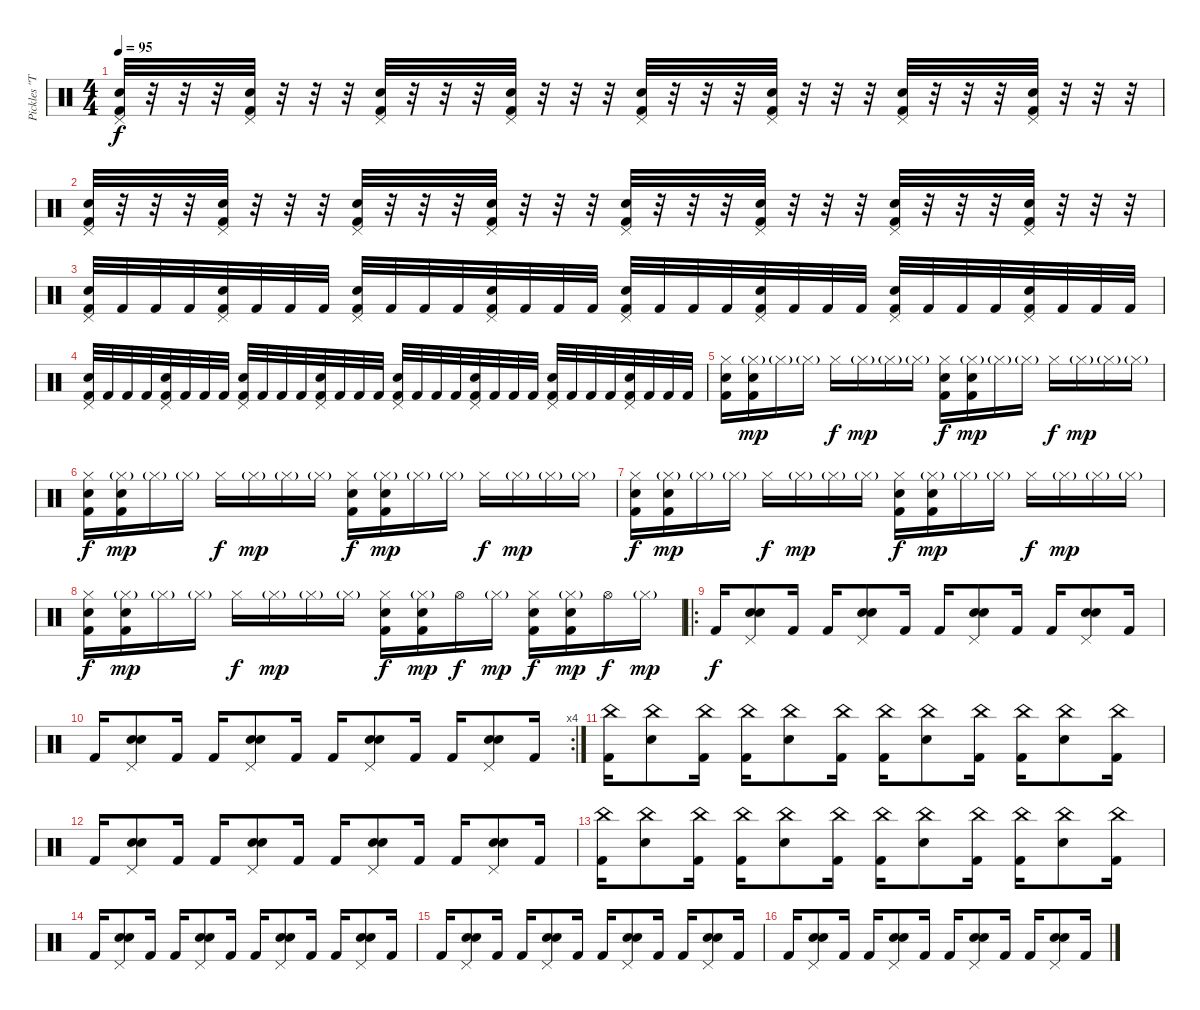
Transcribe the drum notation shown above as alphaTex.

\track ("Pickles \"The Drummer\"" "Pickles \"T") {instrument percussion}
\staff {score}
\articulation defaults
\ts (4 4)
\tempo 95
\clef neutral
\ks c
("Electric Snare (hit)" "Pedal Hi-Hat (hit)" "Kick (hit) 2").32{dy f} r.32 r.32 r.32 ("Electric Snare (hit)" "Pedal Hi-Hat (hit)" "Kick (hit) 2").32 r.32 r.32 r.32 ("Electric Snare (hit)" "Pedal Hi-Hat (hit)" "Kick (hit) 2").32 r.32 r.32 r.32 ("Electric Snare (hit)" "Pedal Hi-Hat (hit)" "Kick (hit) 2").32 r.32 r.32 r.32 ("Electric Snare (hit)" "Pedal Hi-Hat (hit)" "Kick (hit) 2").32 r.32 r.32 r.32 ("Electric Snare (hit)" "Pedal Hi-Hat (hit)" "Kick (hit) 2").32 r.32 r.32 r.32 ("Electric Snare (hit)" "Pedal Hi-Hat (hit)" "Kick (hit) 2").32 r.32 r.32 r.32 ("Electric Snare (hit)" "Pedal Hi-Hat (hit)" "Kick (hit) 2").32 r.32 r.32 r.32 |
("Electric Snare (hit)" "Pedal Hi-Hat (hit)" "Kick (hit) 2").32 r.32 r.32 r.32 ("Electric Snare (hit)" "Pedal Hi-Hat (hit)" "Kick (hit) 2").32 r.32 r.32 r.32 ("Electric Snare (hit)" "Pedal Hi-Hat (hit)" "Kick (hit) 2").32 r.32 r.32 r.32 ("Electric Snare (hit)" "Pedal Hi-Hat (hit)" "Kick (hit) 2").32 r.32 r.32 r.32 ("Electric Snare (hit)" "Pedal Hi-Hat (hit)" "Kick (hit) 2").32 r.32 r.32 r.32 ("Electric Snare (hit)" "Pedal Hi-Hat (hit)" "Kick (hit) 2").32 r.32 r.32 r.32 ("Electric Snare (hit)" "Pedal Hi-Hat (hit)" "Kick (hit) 2").32 r.32 r.32 r.32 ("Electric Snare (hit)" "Pedal Hi-Hat (hit)" "Kick (hit) 2").32 r.32 r.32 r.32 |
("Pedal Hi-Hat (hit)" "Electric Snare (hit)" "Kick (hit) 2").32 "Kick (hit) 2".32 "Kick (hit) 2".32 "Kick (hit) 2".32 ("Pedal Hi-Hat (hit)" "Electric Snare (hit)" "Kick (hit) 2").32 "Kick (hit) 2".32 "Kick (hit) 2".32 "Kick (hit) 2".32 ("Pedal Hi-Hat (hit)" "Electric Snare (hit)" "Kick (hit) 2").32 "Kick (hit) 2".32 "Kick (hit) 2".32 "Kick (hit) 2".32 ("Pedal Hi-Hat (hit)" "Electric Snare (hit)" "Kick (hit) 2").32 "Kick (hit) 2".32 "Kick (hit) 2".32 "Kick (hit) 2".32 ("Pedal Hi-Hat (hit)" "Electric Snare (hit)" "Kick (hit) 2").32 "Kick (hit) 2".32 "Kick (hit) 2".32 "Kick (hit) 2".32 ("Pedal Hi-Hat (hit)" "Electric Snare (hit)" "Kick (hit) 2").32 "Kick (hit) 2".32 "Kick (hit) 2".32 "Kick (hit) 2".32 ("Pedal Hi-Hat (hit)" "Electric Snare (hit)" "Kick (hit) 2").32 "Kick (hit) 2".32 "Kick (hit) 2".32 "Kick (hit) 2".32 ("Pedal Hi-Hat (hit)" "Electric Snare (hit)" "Kick (hit) 2").32 "Kick (hit) 2".32 "Kick (hit) 2".32 "Kick (hit) 2".32 |
("Pedal Hi-Hat (hit)" "Electric Snare (hit)" "Kick (hit) 2").32 "Kick (hit) 2".32 "Kick (hit) 2".32 "Kick (hit) 2".32 ("Pedal Hi-Hat (hit)" "Electric Snare (hit)" "Kick (hit) 2").32 "Kick (hit) 2".32 "Kick (hit) 2".32 "Kick (hit) 2".32 ("Pedal Hi-Hat (hit)" "Electric Snare (hit)" "Kick (hit) 2").32 "Kick (hit) 2".32 "Kick (hit) 2".32 "Kick (hit) 2".32 ("Pedal Hi-Hat (hit)" "Electric Snare (hit)" "Kick (hit) 2").32 "Kick (hit) 2".32 "Kick (hit) 2".32 "Kick (hit) 2".32 ("Pedal Hi-Hat (hit)" "Electric Snare (hit)" "Kick (hit) 2").32 "Kick (hit) 2".32 "Kick (hit) 2".32 "Kick (hit) 2".32 ("Pedal Hi-Hat (hit)" "Electric Snare (hit)" "Kick (hit) 2").32 "Kick (hit) 2".32 "Kick (hit) 2".32 "Kick (hit) 2".32 ("Pedal Hi-Hat (hit)" "Electric Snare (hit)" "Kick (hit) 2").32 "Kick (hit) 2".32 "Kick (hit) 2".32 "Kick (hit) 2".32 ("Pedal Hi-Hat (hit)" "Electric Snare (hit)" "Kick (hit) 2").32 "Kick (hit) 2".32 "Kick (hit) 2".32 "Kick (hit) 2".32 |
("Hi-Hat (closed)" "Kick (hit) 2" "Snare (hit) 2").16 ("Hi-Hat (closed)"{g} "Kick (hit) 2" "Snare (hit) 2").16{dy mp} "Hi-Hat (closed)"{g}.16 "Hi-Hat (closed)"{g}.16 "Hi-Hat (closed)".16{dy f} "Hi-Hat (closed)"{g}.16{dy mp} "Hi-Hat (closed)"{g}.16 "Hi-Hat (closed)"{g}.16 ("Hi-Hat (closed)" "Kick (hit) 2" "Snare (hit) 2").16{dy f} ("Hi-Hat (closed)"{g} "Kick (hit) 2" "Snare (hit) 2").16{dy mp} "Hi-Hat (closed)"{g}.16 "Hi-Hat (closed)"{g}.16 "Hi-Hat (closed)".16{dy f} "Hi-Hat (closed)"{g}.16{dy mp} "Hi-Hat (closed)"{g}.16 "Hi-Hat (closed)"{g}.16 |
("Hi-Hat (closed)" "Kick (hit) 2" "Snare (hit) 2").16{dy f} ("Hi-Hat (closed)"{g} "Kick (hit) 2" "Snare (hit) 2").16{dy mp} "Hi-Hat (closed)"{g}.16 "Hi-Hat (closed)"{g}.16 "Hi-Hat (closed)".16{dy f} "Hi-Hat (closed)"{g}.16{dy mp} "Hi-Hat (closed)"{g}.16 "Hi-Hat (closed)"{g}.16 ("Hi-Hat (closed)" "Kick (hit) 2" "Snare (hit) 2").16{dy f} ("Hi-Hat (closed)"{g} "Kick (hit) 2" "Snare (hit) 2").16{dy mp} "Hi-Hat (closed)"{g}.16 "Hi-Hat (closed)"{g}.16 "Hi-Hat (closed)".16{dy f} "Hi-Hat (closed)"{g}.16{dy mp} "Hi-Hat (closed)"{g}.16 "Hi-Hat (closed)"{g}.16 |
("Hi-Hat (closed)" "Kick (hit) 2" "Snare (hit) 2").16{dy f} ("Hi-Hat (closed)"{g} "Kick (hit) 2" "Snare (hit) 2").16{dy mp} "Hi-Hat (closed)"{g}.16 "Hi-Hat (closed)"{g}.16 "Hi-Hat (closed)".16{dy f} "Hi-Hat (closed)"{g}.16{dy mp} "Hi-Hat (closed)"{g}.16 "Hi-Hat (closed)"{g}.16 ("Hi-Hat (closed)" "Kick (hit) 2" "Snare (hit) 2").16{dy f} ("Hi-Hat (closed)"{g} "Kick (hit) 2" "Snare (hit) 2").16{dy mp} "Hi-Hat (closed)"{g}.16 "Hi-Hat (closed)"{g}.16 "Hi-Hat (closed)".16{dy f} "Hi-Hat (closed)"{g}.16{dy mp} "Hi-Hat (closed)"{g}.16 "Hi-Hat (closed)"{g}.16 |
("Hi-Hat (closed)" "Kick (hit) 2" "Snare (hit) 2").16{dy f} ("Hi-Hat (closed)"{g} "Kick (hit) 2" "Snare (hit) 2").16{dy mp} "Hi-Hat (closed)"{g}.16 "Hi-Hat (closed)"{g}.16 "Hi-Hat (closed)".16{dy f} "Hi-Hat (closed)"{g}.16{dy mp} "Hi-Hat (closed)"{g}.16 "Hi-Hat (closed)"{g}.16 ("Hi-Hat (closed)" "Snare (hit) 2" "Kick (hit) 2").16{dy f} ("Hi-Hat (closed)"{g} "Snare (hit) 2" "Kick (hit) 2").16{dy mp} "Hi-Hat (open)".16{dy f} "Hi-Hat (closed)"{g}.16{dy mp} ("Hi-Hat (closed)" "Snare (hit) 2" "Kick (hit) 2").16{dy f} ("Hi-Hat (closed)"{g} "Snare (hit) 2" "Kick (hit) 2").16{dy mp} "Hi-Hat (open)".16{dy f} "Hi-Hat (closed)"{g}.16{dy mp} |
\ro "Kick (hit) 2".16{dy f}
("Electric Snare (hit)" "Pedal Hi-Hat (hit)" "Snare (hit) 2").8 "Kick (hit) 2".16 "Kick (hit) 2".16 ("Electric Snare (hit)" "Pedal Hi-Hat (hit)" "Snare (hit) 2").8 "Kick (hit) 2".16 "Kick (hit) 2".16 ("Electric Snare (hit)" "Pedal Hi-Hat (hit)" "Snare (hit) 2").8 "Kick (hit) 2".16 "Kick (hit) 2".16 ("Electric Snare (hit)" "Pedal Hi-Hat (hit)" "Snare (hit) 2").8 "Kick (hit) 2".16 |
\rc 4 "Kick (hit) 2".16
("Electric Snare (hit)" "Pedal Hi-Hat (hit)" "Snare (hit) 2").8 "Kick (hit) 2".16 "Kick (hit) 2".16 ("Electric Snare (hit)" "Pedal Hi-Hat (hit)" "Snare (hit) 2").8 "Kick (hit) 2".16 "Kick (hit) 2".16 ("Electric Snare (hit)" "Pedal Hi-Hat (hit)" "Snare (hit) 2").8 "Kick (hit) 2".16 "Kick (hit) 2".16 ("Electric Snare (hit)" "Pedal Hi-Hat (hit)" "Snare (hit) 2").8 "Kick (hit) 2".16 |
("China (hit)" "Kick (hit) 2").16 ("China (hit)" "Snare (hit) 2").8 ("China (hit)" "Kick (hit) 2").16 ("China (hit)" "Kick (hit) 2").16 ("China (hit)" "Snare (hit) 2").8 ("China (hit)" "Kick (hit) 2").16 ("China (hit)" "Kick (hit) 2").16 ("China (hit)" "Snare (hit) 2").8 ("China (hit)" "Kick (hit) 2").16 ("China (hit)" "Kick (hit) 2").16 ("China (hit)" "Snare (hit) 2").8 ("China (hit)" "Kick (hit) 2").16 |
"Kick (hit) 2".16 ("Electric Snare (hit)" "Pedal Hi-Hat (hit)" "Snare (hit) 2").8 "Kick (hit) 2".16 "Kick (hit) 2".16 ("Electric Snare (hit)" "Pedal Hi-Hat (hit)" "Snare (hit) 2").8 "Kick (hit) 2".16 "Kick (hit) 2".16 ("Electric Snare (hit)" "Pedal Hi-Hat (hit)" "Snare (hit) 2").8 "Kick (hit) 2".16 "Kick (hit) 2".16 ("Electric Snare (hit)" "Pedal Hi-Hat (hit)" "Snare (hit) 2").8 "Kick (hit) 2".16 |
("China (hit)" "Kick (hit) 2").16 ("China (hit)" "Snare (hit) 2").8 ("China (hit)" "Kick (hit) 2").16 ("China (hit)" "Kick (hit) 2").16 ("China (hit)" "Snare (hit) 2").8 ("China (hit)" "Kick (hit) 2").16 ("China (hit)" "Kick (hit) 2").16 ("China (hit)" "Snare (hit) 2").8 ("China (hit)" "Kick (hit) 2").16 ("China (hit)" "Kick (hit) 2").16 ("China (hit)" "Snare (hit) 2").8 ("China (hit)" "Kick (hit) 2").16 |
"Kick (hit) 2".16 ("Electric Snare (hit)" "Pedal Hi-Hat (hit)" "Snare (hit) 2").8 "Kick (hit) 2".16 "Kick (hit) 2".16 ("Electric Snare (hit)" "Pedal Hi-Hat (hit)" "Snare (hit) 2").8 "Kick (hit) 2".16 "Kick (hit) 2".16 ("Electric Snare (hit)" "Pedal Hi-Hat (hit)" "Snare (hit) 2").8 "Kick (hit) 2".16 "Kick (hit) 2".16 ("Electric Snare (hit)" "Pedal Hi-Hat (hit)" "Snare (hit) 2").8 "Kick (hit) 2".16 |
"Kick (hit) 2".16 ("Electric Snare (hit)" "Pedal Hi-Hat (hit)" "Snare (hit) 2").8 "Kick (hit) 2".16 "Kick (hit) 2".16 ("Electric Snare (hit)" "Pedal Hi-Hat (hit)" "Snare (hit) 2").8 "Kick (hit) 2".16 "Kick (hit) 2".16 ("Electric Snare (hit)" "Pedal Hi-Hat (hit)" "Snare (hit) 2").8 "Kick (hit) 2".16 "Kick (hit) 2".16 ("Electric Snare (hit)" "Pedal Hi-Hat (hit)" "Snare (hit) 2").8 "Kick (hit) 2".16 |
"Kick (hit) 2".16 ("Electric Snare (hit)" "Pedal Hi-Hat (hit)" "Snare (hit) 2").8 "Kick (hit) 2".16 "Kick (hit) 2".16 ("Electric Snare (hit)" "Pedal Hi-Hat (hit)" "Snare (hit) 2").8 "Kick (hit) 2".16 "Kick (hit) 2".16 ("Electric Snare (hit)" "Pedal Hi-Hat (hit)" "Snare (hit) 2").8 "Kick (hit) 2".16 "Kick (hit) 2".16 ("Electric Snare (hit)" "Pedal Hi-Hat (hit)" "Snare (hit) 2").8 "Kick (hit) 2".16
